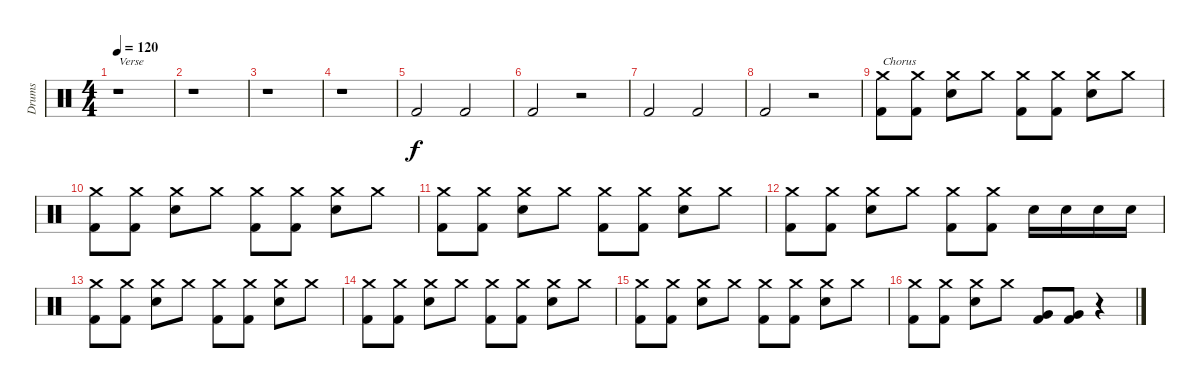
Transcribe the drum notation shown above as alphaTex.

\track ("Drums" "Drums") {instrument percussion}
\staff {score}
\articulation defaults
\ts (4 4)
\tempo 120
\clef neutral
\ks c
r.1{txt "Verse" dy f} |
r.1 |
r.1 |
r.1 |
"Kick (hit) 2".2 "Kick (hit) 2".2 |
"Kick (hit) 2".2 r.2 |
"Kick (hit) 2".2 "Kick (hit) 2".2 |
"Kick (hit) 2".2 r.2 |
("Crash medium (hit)" "Kick (hit) 2").8{txt "Chorus"} ("Crash medium (hit)" "Kick (hit) 2").8 ("Crash medium (hit)" "Electric Snare (hit)").8 "Crash medium (hit)".8 ("Crash medium (hit)" "Kick (hit) 2").8 ("Crash medium (hit)" "Kick (hit) 2").8 ("Crash medium (hit)" "Electric Snare (hit)").8 "Crash medium (hit)".8 |
("Crash medium (hit)" "Kick (hit) 2").8 ("Crash medium (hit)" "Kick (hit) 2").8 ("Crash medium (hit)" "Electric Snare (hit)").8 "Crash medium (hit)".8 ("Crash medium (hit)" "Kick (hit) 2").8 ("Crash medium (hit)" "Kick (hit) 2").8 ("Crash medium (hit)" "Electric Snare (hit)").8 "Crash medium (hit)".8 |
("Crash medium (hit)" "Kick (hit) 2").8 ("Crash medium (hit)" "Kick (hit) 2").8 ("Crash medium (hit)" "Electric Snare (hit)").8 "Crash medium (hit)".8 ("Crash medium (hit)" "Kick (hit) 2").8 ("Crash medium (hit)" "Kick (hit) 2").8 ("Crash medium (hit)" "Electric Snare (hit)").8 "Crash medium (hit)".8 |
("Crash medium (hit)" "Kick (hit) 2").8 ("Crash medium (hit)" "Kick (hit) 2").8 ("Crash medium (hit)" "Electric Snare (hit)").8 "Crash medium (hit)".8 ("Crash medium (hit)" "Kick (hit) 2").8 ("Crash medium (hit)" "Kick (hit) 2").8 "Electric Snare (hit)".16 "Electric Snare (hit)".16 "Electric Snare (hit)".16 "Electric Snare (hit)".16 |
("Crash medium (hit)" "Kick (hit) 2").8 ("Crash medium (hit)" "Kick (hit) 2").8 ("Crash medium (hit)" "Electric Snare (hit)").8 "Crash medium (hit)".8 ("Crash medium (hit)" "Kick (hit) 2").8 ("Crash medium (hit)" "Kick (hit) 2").8 ("Crash medium (hit)" "Electric Snare (hit)").8 "Crash medium (hit)".8 |
("Crash medium (hit)" "Kick (hit) 2").8 ("Crash medium (hit)" "Kick (hit) 2").8 ("Crash medium (hit)" "Electric Snare (hit)").8 "Crash medium (hit)".8 ("Crash medium (hit)" "Kick (hit) 2").8 ("Crash medium (hit)" "Kick (hit) 2").8 ("Crash medium (hit)" "Electric Snare (hit)").8 "Crash medium (hit)".8 |
("Crash medium (hit)" "Kick (hit) 2").8 ("Crash medium (hit)" "Kick (hit) 2").8 ("Crash medium (hit)" "Electric Snare (hit)").8 "Crash medium (hit)".8 ("Crash medium (hit)" "Kick (hit) 2").8 ("Crash medium (hit)" "Kick (hit) 2").8 ("Crash medium (hit)" "Electric Snare (hit)").8 "Crash medium (hit)".8 |
("Crash medium (hit)" "Kick (hit) 2").8 ("Crash medium (hit)" "Kick (hit) 2").8 ("Crash medium (hit)" "Electric Snare (hit)").8 "Crash medium (hit)".8 ("Very Low Tom (hit)" "Kick (hit) 2").8 ("Very Low Tom (hit)" "Kick (hit) 2").8 r.4
